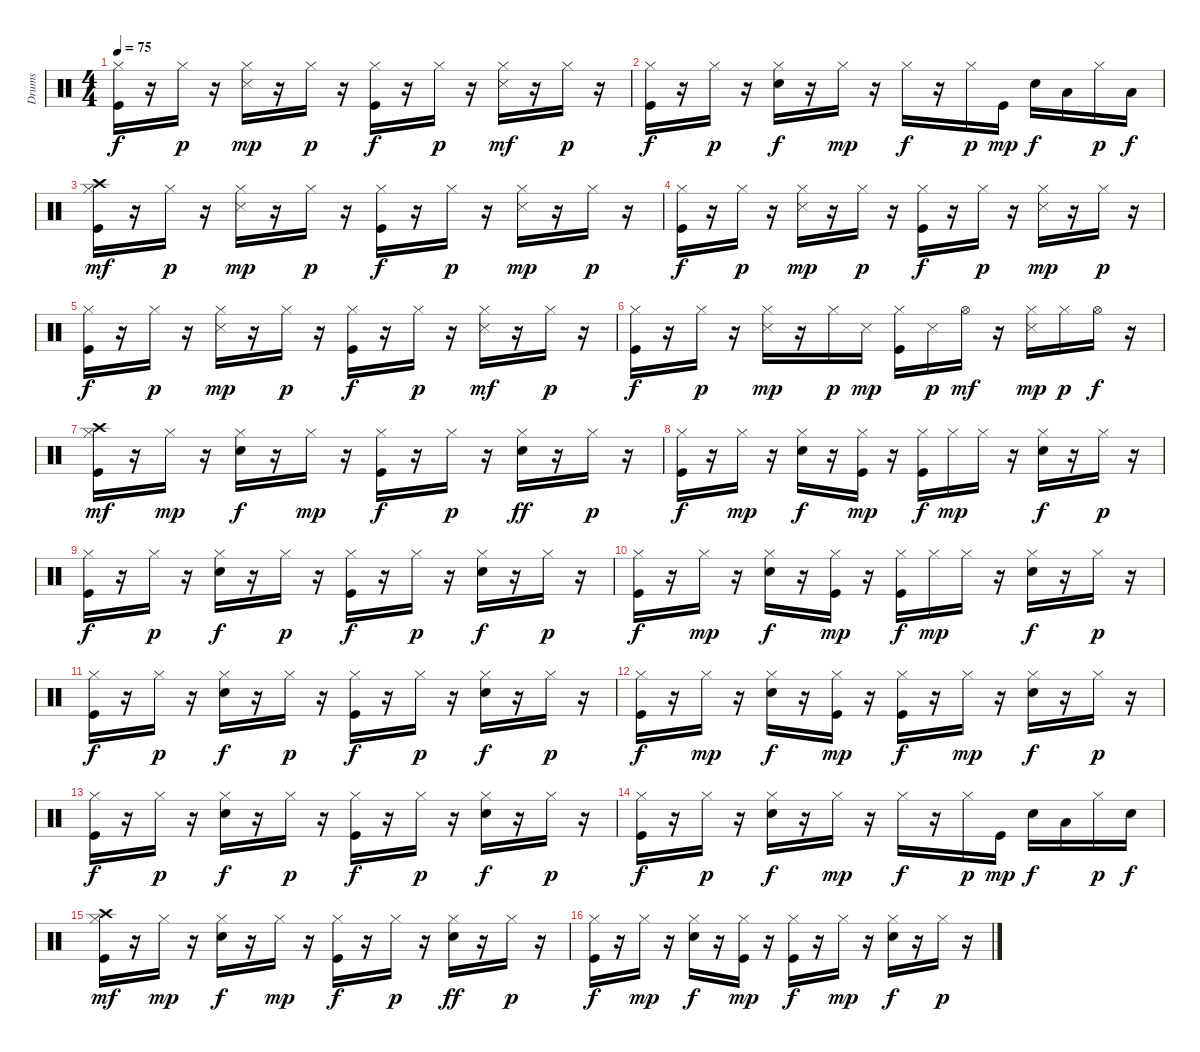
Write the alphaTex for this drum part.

\track ("Drums   " "Drums   ") {instrument percussion}
\staff {score}
\articulation defaults
\ts (4 4)
\tempo 75
\clef neutral
\ks c
("Kick (hit)" "Hi-Hat (closed)").16{dy f} r.16 "Hi-Hat (closed)".16{dy p} r.16 ("Hi-Hat (closed)" "Snare (side stick) 3").16{dy mp} r.16 "Hi-Hat (closed)".16{dy p} r.16 ("Kick (hit)" "Hi-Hat (closed)").16{dy f} r.16 "Hi-Hat (closed)".16{dy p} r.16 ("Hi-Hat (closed)" "Snare (side stick) 3").16{dy mf} r.16 "Hi-Hat (closed)".16{dy p} r.16 |
("Kick (hit)" "Hi-Hat (closed)").16{dy f} r.16 "Hi-Hat (closed)".16{dy p} r.16 ("Snare (hit) 2" "Hi-Hat (closed)").16{dy f} r.16 "Hi-Hat (closed)".16{dy mp} r.16 "Hi-Hat (closed)".16{dy f} r.16 "Hi-Hat (closed)".16{dy p} "Kick (hit)".16{dy mp} "Snare (hit) 2".16{dy f} "Low Tom (hit)".16 "Hi-Hat (closed)".16{dy p} "Low Tom (hit)".16{dy f} |
("Kick (hit)" "Hi-Hat (closed)" "Crash high (hit)").16{dy mf} r.16 "Hi-Hat (closed)".16{dy p} r.16 ("Hi-Hat (closed)" "Snare (side stick) 3").16{dy mp} r.16 "Hi-Hat (closed)".16{dy p} r.16 ("Kick (hit)" "Hi-Hat (closed)").16{dy f} r.16 "Hi-Hat (closed)".16{dy p} r.16 ("Hi-Hat (closed)" "Snare (side stick) 3").16{dy mp} r.16 "Hi-Hat (closed)".16{dy p} r.16 |
("Kick (hit)" "Hi-Hat (closed)").16{dy f} r.16 "Hi-Hat (closed)".16{dy p} r.16 ("Hi-Hat (closed)" "Snare (side stick) 3").16{dy mp} r.16 "Hi-Hat (closed)".16{dy p} r.16 ("Kick (hit)" "Hi-Hat (closed)").16{dy f} r.16 "Hi-Hat (closed)".16{dy p} r.16 ("Hi-Hat (closed)" "Snare (side stick) 3").16{dy mp} r.16 "Hi-Hat (closed)".16{dy p} r.16 |
("Kick (hit)" "Hi-Hat (closed)").16{dy f} r.16 "Hi-Hat (closed)".16{dy p} r.16 ("Hi-Hat (closed)" "Snare (side stick) 3").16{dy mp} r.16 "Hi-Hat (closed)".16{dy p} r.16 ("Kick (hit)" "Hi-Hat (closed)").16{dy f} r.16 "Hi-Hat (closed)".16{dy p} r.16 ("Hi-Hat (closed)" "Snare (side stick) 3").16{dy mf} r.16 "Hi-Hat (closed)".16{dy p} r.16 |
("Kick (hit)" "Hi-Hat (closed)").16{dy f} r.16 "Hi-Hat (closed)".16{dy p} r.16 ("Hi-Hat (closed)" "Snare (side stick) 3").16{dy mp} r.16 "Hi-Hat (closed)".16{dy p} "Snare (side stick) 3".16{dy mp} ("Kick (hit)" "Hi-Hat (closed)").16 "Snare (side stick) 3".16{dy p} "Hi-Hat (open)".16{dy mf} r.16 ("Hi-Hat (closed)" "Snare (side stick) 3").16{dy mp} "Hi-Hat (closed)".16{dy p} "Hi-Hat (open)".16{dy f} r.16 |
("Kick (hit)" "Hi-Hat (closed)" "Crash high (hit)").16{dy mf} r.16 "Hi-Hat (closed)".16{dy mp} r.16 ("Snare (hit) 2" "Hi-Hat (closed)").16{dy f} r.16 "Hi-Hat (closed)".16{dy mp} r.16 ("Kick (hit)" "Hi-Hat (closed)").16{dy f} r.16 "Hi-Hat (closed)".16{dy p} r.16 ("Snare (hit) 2" "Hi-Hat (closed)").16{dy ff} r.16 "Hi-Hat (closed)".16{dy p} r.16 |
("Kick (hit)" "Hi-Hat (closed)").16{dy f} r.16 "Hi-Hat (closed)".16{dy mp} r.16 ("Snare (hit) 2" "Hi-Hat (closed)").16{dy f} r.16 ("Kick (hit)" "Hi-Hat (closed)").16{dy mp} r.16 ("Kick (hit)" "Hi-Hat (closed)").16{dy f} "Hi-Hat (closed)".16{dy mp} "Hi-Hat (closed)".16 r.16 ("Snare (hit) 2" "Hi-Hat (closed)").16{dy f} r.16 "Hi-Hat (closed)".16{dy p} r.16 |
("Kick (hit)" "Hi-Hat (closed)").16{dy f} r.16 "Hi-Hat (closed)".16{dy p} r.16 ("Snare (hit) 2" "Hi-Hat (closed)").16{dy f} r.16 "Hi-Hat (closed)".16{dy p} r.16 ("Kick (hit)" "Hi-Hat (closed)").16{dy f} r.16 "Hi-Hat (closed)".16{dy p} r.16 ("Snare (hit) 2" "Hi-Hat (closed)").16{dy f} r.16 "Hi-Hat (closed)".16{dy p} r.16 |
("Kick (hit)" "Hi-Hat (closed)").16{dy f} r.16 "Hi-Hat (closed)".16{dy mp} r.16 ("Snare (hit) 2" "Hi-Hat (closed)").16{dy f} r.16 ("Kick (hit)" "Hi-Hat (closed)").16{dy mp} r.16 ("Kick (hit)" "Hi-Hat (closed)").16{dy f} "Hi-Hat (closed)".16{dy mp} "Hi-Hat (closed)".16 r.16 ("Snare (hit) 2" "Hi-Hat (closed)").16{dy f} r.16 "Hi-Hat (closed)".16{dy p} r.16 |
("Kick (hit)" "Hi-Hat (closed)").16{dy f} r.16 "Hi-Hat (closed)".16{dy p} r.16 ("Snare (hit) 2" "Hi-Hat (closed)").16{dy f} r.16 "Hi-Hat (closed)".16{dy p} r.16 ("Kick (hit)" "Hi-Hat (closed)").16{dy f} r.16 "Hi-Hat (closed)".16{dy p} r.16 ("Snare (hit) 2" "Hi-Hat (closed)").16{dy f} r.16 "Hi-Hat (closed)".16{dy p} r.16 |
("Kick (hit)" "Hi-Hat (closed)").16{dy f} r.16 "Hi-Hat (closed)".16{dy mp} r.16 ("Snare (hit) 2" "Hi-Hat (closed)").16{dy f} r.16 ("Kick (hit)" "Hi-Hat (closed)").16{dy mp} r.16 ("Kick (hit)" "Hi-Hat (closed)").16{dy f} r.16 "Hi-Hat (closed)".16{dy mp} r.16 ("Snare (hit) 2" "Hi-Hat (closed)").16{dy f} r.16 "Hi-Hat (closed)".16{dy p} r.16 |
("Kick (hit)" "Hi-Hat (closed)").16{dy f} r.16 "Hi-Hat (closed)".16{dy p} r.16 ("Snare (hit) 2" "Hi-Hat (closed)").16{dy f} r.16 "Hi-Hat (closed)".16{dy p} r.16 ("Kick (hit)" "Hi-Hat (closed)").16{dy f} r.16 "Hi-Hat (closed)".16{dy p} r.16 ("Snare (hit) 2" "Hi-Hat (closed)").16{dy f} r.16 "Hi-Hat (closed)".16{dy p} r.16 |
("Kick (hit)" "Hi-Hat (closed)").16{dy f} r.16 "Hi-Hat (closed)".16{dy p} r.16 ("Snare (hit) 2" "Hi-Hat (closed)").16{dy f} r.16 "Hi-Hat (closed)".16{dy mp} r.16 "Hi-Hat (closed)".16{dy f} r.16 "Hi-Hat (closed)".16{dy p} "Kick (hit)".16{dy mp} "Snare (hit) 2".16{dy f} "Low Tom (hit)".16 "Hi-Hat (closed)".16{dy p} "Snare (hit) 2".16{dy f} |
("Kick (hit)" "Hi-Hat (closed)" "Crash high (hit)").16{dy mf} r.16 "Hi-Hat (closed)".16{dy mp} r.16 ("Snare (hit) 2" "Hi-Hat (closed)").16{dy f} r.16 "Hi-Hat (closed)".16{dy mp} r.16 ("Kick (hit)" "Hi-Hat (closed)").16{dy f} r.16 "Hi-Hat (closed)".16{dy p} r.16 ("Snare (hit) 2" "Hi-Hat (closed)").16{dy ff} r.16 "Hi-Hat (closed)".16{dy p} r.16 |
("Kick (hit)" "Hi-Hat (closed)").16{dy f} r.16 "Hi-Hat (closed)".16{dy mp} r.16 ("Snare (hit) 2" "Hi-Hat (closed)").16{dy f} r.16 ("Kick (hit)" "Hi-Hat (closed)").16{dy mp} r.16 ("Kick (hit)" "Hi-Hat (closed)").16{dy f} r.16 "Hi-Hat (closed)".16{dy mp} r.16 ("Snare (hit) 2" "Hi-Hat (closed)").16{dy f} r.16 "Hi-Hat (closed)".16{dy p} r.16
